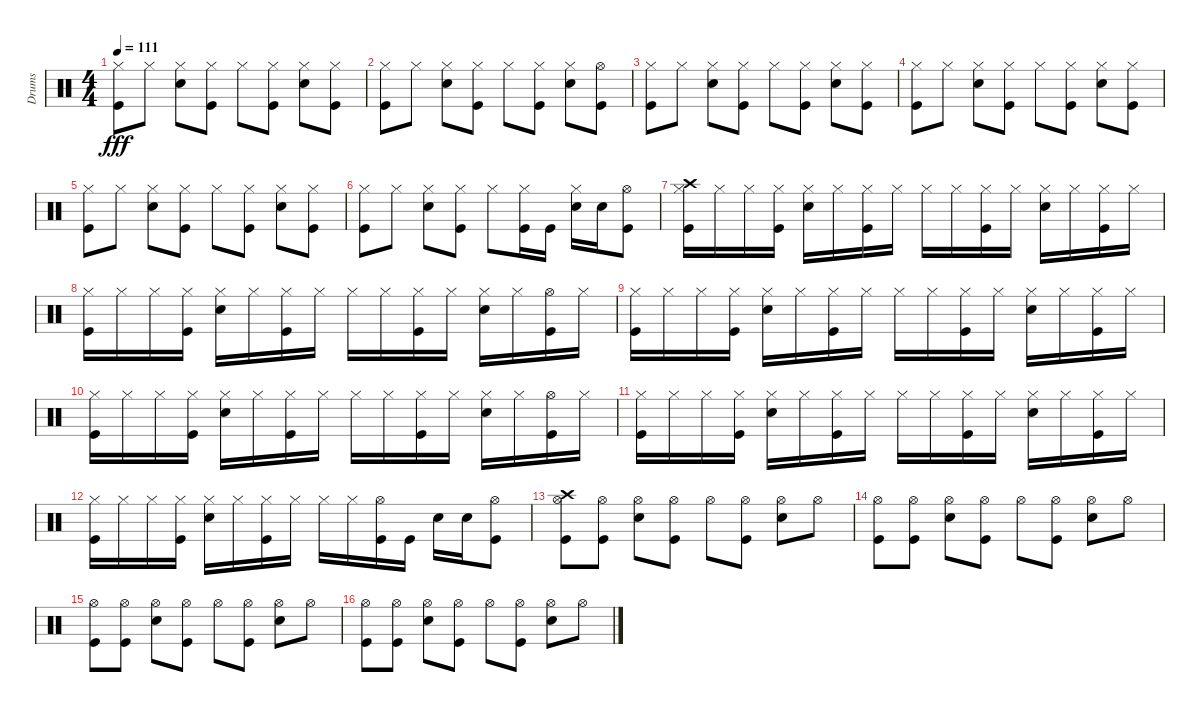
\track ("Drums" "Drums") {instrument percussion}
\staff {score}
\articulation defaults
\ts (4 4)
\tempo 111
\clef neutral
\ks c
("Hi-Hat (closed)" "Kick (hit)").8{dy fff} "Hi-Hat (closed)".8 ("Hi-Hat (closed)" "Snare (hit) 2").8 ("Hi-Hat (closed)" "Kick (hit)").8 "Hi-Hat (closed)".8 ("Hi-Hat (closed)" "Kick (hit)").8 ("Hi-Hat (closed)" "Snare (hit) 2").8 ("Hi-Hat (closed)" "Kick (hit)").8 |
("Hi-Hat (closed)" "Kick (hit)").8 "Hi-Hat (closed)".8 ("Hi-Hat (closed)" "Snare (hit) 2").8 ("Hi-Hat (closed)" "Kick (hit)").8 "Hi-Hat (closed)".8 ("Hi-Hat (closed)" "Kick (hit)").8 ("Hi-Hat (closed)" "Snare (hit) 2").8 ("Hi-Hat (open)" "Kick (hit)").8 |
("Hi-Hat (closed)" "Kick (hit)").8 "Hi-Hat (closed)".8 ("Hi-Hat (closed)" "Snare (hit) 2").8 ("Hi-Hat (closed)" "Kick (hit)").8 "Hi-Hat (closed)".8 ("Hi-Hat (closed)" "Kick (hit)").8 ("Hi-Hat (closed)" "Snare (hit) 2").8 ("Hi-Hat (closed)" "Kick (hit)").8 |
("Hi-Hat (closed)" "Kick (hit)").8 "Hi-Hat (closed)".8 ("Hi-Hat (closed)" "Snare (hit) 2").8 ("Hi-Hat (closed)" "Kick (hit)").8 "Hi-Hat (closed)".8 ("Hi-Hat (closed)" "Kick (hit)").8 ("Hi-Hat (closed)" "Snare (hit) 2").8 ("Hi-Hat (closed)" "Kick (hit)").8 |
("Hi-Hat (closed)" "Kick (hit)").8 "Hi-Hat (closed)".8 ("Hi-Hat (closed)" "Snare (hit) 2").8 ("Hi-Hat (closed)" "Kick (hit)").8 "Hi-Hat (closed)".8 ("Hi-Hat (closed)" "Kick (hit)").8 ("Hi-Hat (closed)" "Snare (hit) 2").8 ("Hi-Hat (closed)" "Kick (hit)").8 |
("Hi-Hat (closed)" "Kick (hit)").8 "Hi-Hat (closed)".8 ("Hi-Hat (closed)" "Snare (hit) 2").8 ("Hi-Hat (closed)" "Kick (hit)").8 "Hi-Hat (closed)".8 ("Hi-Hat (closed)" "Kick (hit)").16 "Kick (hit)".16 ("Hi-Hat (closed)" "Snare (hit) 2").16 "Snare (hit) 2".16 ("Hi-Hat (open)" "Kick (hit)").8 |
("Hi-Hat (closed)" "Crash high (hit)" "Kick (hit)").16 "Hi-Hat (closed)".16 "Hi-Hat (closed)".16 ("Hi-Hat (closed)" "Kick (hit)").16 ("Hi-Hat (closed)" "Snare (hit) 2").16 "Hi-Hat (closed)".16 ("Hi-Hat (closed)" "Kick (hit)").16 "Hi-Hat (closed)".16 "Hi-Hat (closed)".16 "Hi-Hat (closed)".16 ("Hi-Hat (closed)" "Kick (hit)").16 "Hi-Hat (closed)".16 ("Hi-Hat (closed)" "Snare (hit) 2").16 "Hi-Hat (closed)".16 ("Hi-Hat (closed)" "Kick (hit)").16 "Hi-Hat (closed)".16 |
("Hi-Hat (closed)" "Kick (hit)").16 "Hi-Hat (closed)".16 "Hi-Hat (closed)".16 ("Hi-Hat (closed)" "Kick (hit)").16 ("Hi-Hat (closed)" "Snare (hit) 2").16 "Hi-Hat (closed)".16 ("Hi-Hat (closed)" "Kick (hit)").16 "Hi-Hat (closed)".16 "Hi-Hat (closed)".16 "Hi-Hat (closed)".16 ("Hi-Hat (closed)" "Kick (hit)").16 "Hi-Hat (closed)".16 ("Hi-Hat (closed)" "Snare (hit) 2").16 "Hi-Hat (closed)".16 ("Hi-Hat (open)" "Kick (hit)").16 "Hi-Hat (closed)".16 |
("Hi-Hat (closed)" "Kick (hit)").16 "Hi-Hat (closed)".16 "Hi-Hat (closed)".16 ("Hi-Hat (closed)" "Kick (hit)").16 ("Hi-Hat (closed)" "Snare (hit) 2").16 "Hi-Hat (closed)".16 ("Hi-Hat (closed)" "Kick (hit)").16 "Hi-Hat (closed)".16 "Hi-Hat (closed)".16 "Hi-Hat (closed)".16 ("Hi-Hat (closed)" "Kick (hit)").16 "Hi-Hat (closed)".16 ("Hi-Hat (closed)" "Snare (hit) 2").16 "Hi-Hat (closed)".16 ("Hi-Hat (closed)" "Kick (hit)").16 "Hi-Hat (closed)".16 |
("Hi-Hat (closed)" "Kick (hit)").16 "Hi-Hat (closed)".16 "Hi-Hat (closed)".16 ("Hi-Hat (closed)" "Kick (hit)").16 ("Hi-Hat (closed)" "Snare (hit) 2").16 "Hi-Hat (closed)".16 ("Hi-Hat (closed)" "Kick (hit)").16 "Hi-Hat (closed)".16 "Hi-Hat (closed)".16 "Hi-Hat (closed)".16 ("Hi-Hat (closed)" "Kick (hit)").16 "Hi-Hat (closed)".16 ("Hi-Hat (closed)" "Snare (hit) 2").16 "Hi-Hat (closed)".16 ("Hi-Hat (open)" "Kick (hit)").16 "Hi-Hat (closed)".16 |
("Hi-Hat (closed)" "Kick (hit)").16 "Hi-Hat (closed)".16 "Hi-Hat (closed)".16 ("Hi-Hat (closed)" "Kick (hit)").16 ("Hi-Hat (closed)" "Snare (hit) 2").16 "Hi-Hat (closed)".16 ("Hi-Hat (closed)" "Kick (hit)").16 "Hi-Hat (closed)".16 "Hi-Hat (closed)".16 "Hi-Hat (closed)".16 ("Hi-Hat (closed)" "Kick (hit)").16 "Hi-Hat (closed)".16 ("Hi-Hat (closed)" "Snare (hit) 2").16 "Hi-Hat (closed)".16 ("Hi-Hat (closed)" "Kick (hit)").16 "Hi-Hat (closed)".16 |
("Hi-Hat (closed)" "Kick (hit)").16 "Hi-Hat (closed)".16 "Hi-Hat (closed)".16 ("Hi-Hat (closed)" "Kick (hit)").16 ("Hi-Hat (closed)" "Snare (hit) 2").16 "Hi-Hat (closed)".16 ("Hi-Hat (closed)" "Kick (hit)").16 "Hi-Hat (closed)".16 "Hi-Hat (closed)".16 "Hi-Hat (closed)".16 ("Hi-Hat (open)" "Kick (hit)").16 "Kick (hit)".16 "Snare (hit) 2".16 "Snare (hit) 2".16 ("Hi-Hat (open)" "Kick (hit)").8 |
("Hi-Hat (open)" "Crash high (hit)" "Kick (hit)").8 ("Hi-Hat (open)" "Kick (hit)").8 ("Hi-Hat (open)" "Snare (hit) 2").8 ("Hi-Hat (open)" "Kick (hit)").8 "Hi-Hat (open)".8 ("Hi-Hat (open)" "Kick (hit)").8 ("Hi-Hat (open)" "Snare (hit) 2").8 "Hi-Hat (open)".8 |
("Hi-Hat (open)" "Kick (hit)").8 ("Hi-Hat (open)" "Kick (hit)").8 ("Hi-Hat (open)" "Snare (hit) 2").8 ("Hi-Hat (open)" "Kick (hit)").8 "Hi-Hat (open)".8 ("Hi-Hat (open)" "Kick (hit)").8 ("Hi-Hat (open)" "Snare (hit) 2").8 "Hi-Hat (open)".8 |
("Hi-Hat (open)" "Kick (hit)").8 ("Hi-Hat (open)" "Kick (hit)").8 ("Hi-Hat (open)" "Snare (hit) 2").8 ("Hi-Hat (open)" "Kick (hit)").8 "Hi-Hat (open)".8 ("Hi-Hat (open)" "Kick (hit)").8 ("Hi-Hat (open)" "Snare (hit) 2").8 "Hi-Hat (open)".8 |
("Hi-Hat (open)" "Kick (hit)").8 ("Hi-Hat (open)" "Kick (hit)").8 ("Hi-Hat (open)" "Snare (hit) 2").8 ("Hi-Hat (open)" "Kick (hit)").8 "Hi-Hat (open)".8 ("Hi-Hat (open)" "Kick (hit)").8 ("Hi-Hat (open)" "Snare (hit) 2").8 "Hi-Hat (open)".8
